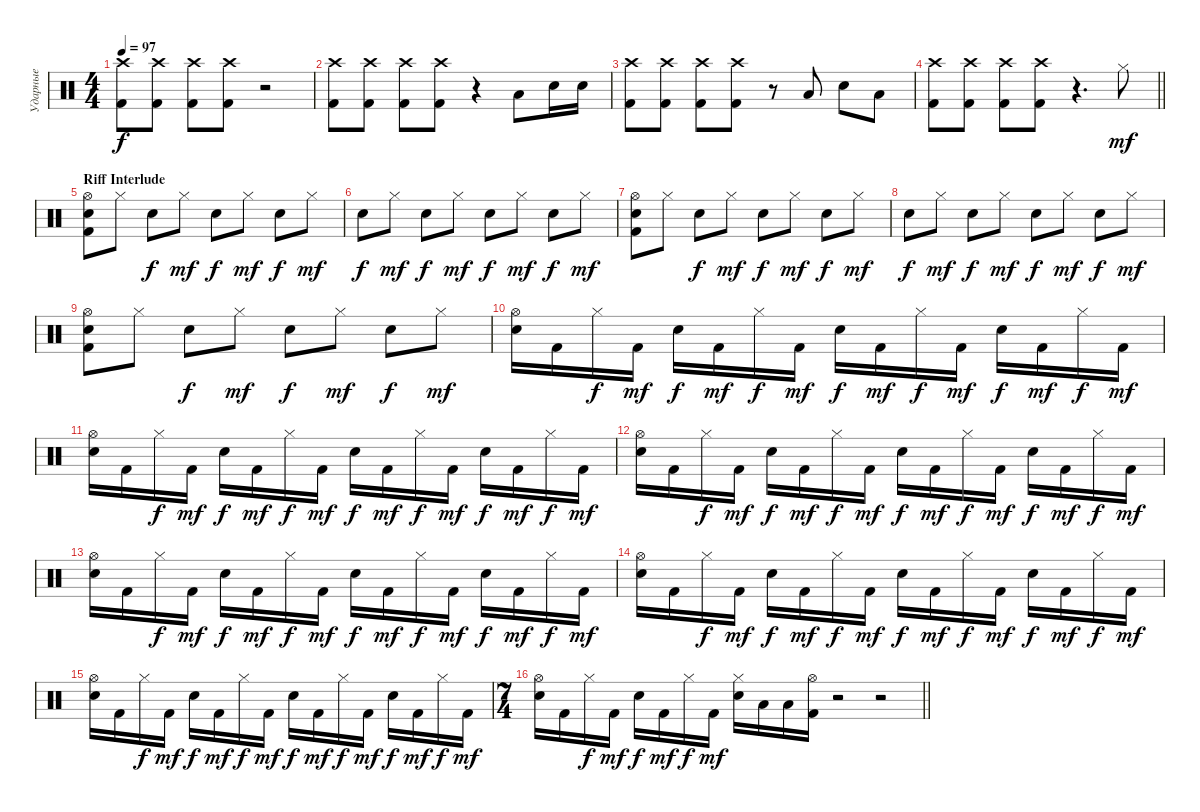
\track ("Ударные" "Ударные") {instrument percussion}
\staff {score}
\articulation defaults
\ts (4 4)
\tempo 97
\clef neutral
\ks c
("Crash high (hit)" "Kick (hit) 2").8{dy f} ("Crash high (hit)" "Kick (hit) 2").8 ("Crash high (hit)" "Kick (hit) 2").8 ("Crash high (hit)" "Kick (hit) 2").8 r.2 |
("Crash high (hit)" "Kick (hit) 2").8 ("Crash high (hit)" "Kick (hit) 2").8 ("Crash high (hit)" "Kick (hit) 2").8 ("Crash high (hit)" "Kick (hit) 2").8 r.4 "Low Tom (hit)".8 "Snare (hit) 2".16 "Snare (hit) 2".16 |
("Crash high (hit)" "Kick (hit) 2").8 ("Crash high (hit)" "Kick (hit) 2").8 ("Crash high (hit)" "Kick (hit) 2").8 ("Crash high (hit)" "Kick (hit) 2").8 r.8 "Low Tom (hit)".8 "Snare (hit) 2".8 "Low Tom (hit)".8 |
\barLineRight lightlight
("Crash high (hit)" "Kick (hit) 2").8 ("Crash high (hit)" "Kick (hit) 2").8 ("Crash high (hit)" "Kick (hit) 2").8 ("Crash high (hit)" "Kick (hit) 2").8 r.4{d} "Hi-Hat (closed)".8{dy mf} |
\section ("" "Riff Interlude")
("Hi-Hat (open)" "Snare (hit) 2" "Kick (hit) 2").8 "Hi-Hat (closed)".8 "Snare (hit) 2".8{dy f} "Hi-Hat (closed)".8{dy mf} "Snare (hit) 2".8{dy f} "Hi-Hat (closed)".8{dy mf} "Snare (hit) 2".8{dy f} "Hi-Hat (closed)".8{dy mf} |
"Snare (hit) 2".8{dy f} "Hi-Hat (closed)".8{dy mf} "Snare (hit) 2".8{dy f} "Hi-Hat (closed)".8{dy mf} "Snare (hit) 2".8{dy f} "Hi-Hat (closed)".8{dy mf} "Snare (hit) 2".8{dy f} "Hi-Hat (closed)".8{dy mf} |
("Hi-Hat (open)" "Snare (hit) 2" "Kick (hit) 2").8 "Hi-Hat (closed)".8 "Snare (hit) 2".8{dy f} "Hi-Hat (closed)".8{dy mf} "Snare (hit) 2".8{dy f} "Hi-Hat (closed)".8{dy mf} "Snare (hit) 2".8{dy f} "Hi-Hat (closed)".8{dy mf} |
"Snare (hit) 2".8{dy f} "Hi-Hat (closed)".8{dy mf} "Snare (hit) 2".8{dy f} "Hi-Hat (closed)".8{dy mf} "Snare (hit) 2".8{dy f} "Hi-Hat (closed)".8{dy mf} "Snare (hit) 2".8{dy f} "Hi-Hat (closed)".8{dy mf} |
("Hi-Hat (open)" "Snare (hit) 2" "Kick (hit) 2").8 "Hi-Hat (closed)".8 "Snare (hit) 2".8{dy f} "Hi-Hat (closed)".8{dy mf} "Snare (hit) 2".8{dy f} "Hi-Hat (closed)".8{dy mf} "Snare (hit) 2".8{dy f} "Hi-Hat (closed)".8{dy mf} |
("Hi-Hat (open)" "Snare (hit) 2").16 "Kick (hit) 2".16 "Hi-Hat (closed)".16{dy f} "Kick (hit) 2".16{dy mf} "Snare (hit) 2".16{dy f} "Kick (hit) 2".16{dy mf} "Hi-Hat (closed)".16{dy f} "Kick (hit) 2".16{dy mf} "Snare (hit) 2".16{dy f} "Kick (hit) 2".16{dy mf} "Hi-Hat (closed)".16{dy f} "Kick (hit) 2".16{dy mf} "Snare (hit) 2".16{dy f} "Kick (hit) 2".16{dy mf} "Hi-Hat (closed)".16{dy f} "Kick (hit) 2".16{dy mf} |
("Hi-Hat (open)" "Snare (hit) 2").16 "Kick (hit) 2".16 "Hi-Hat (closed)".16{dy f} "Kick (hit) 2".16{dy mf} "Snare (hit) 2".16{dy f} "Kick (hit) 2".16{dy mf} "Hi-Hat (closed)".16{dy f} "Kick (hit) 2".16{dy mf} "Snare (hit) 2".16{dy f} "Kick (hit) 2".16{dy mf} "Hi-Hat (closed)".16{dy f} "Kick (hit) 2".16{dy mf} "Snare (hit) 2".16{dy f} "Kick (hit) 2".16{dy mf} "Hi-Hat (closed)".16{dy f} "Kick (hit) 2".16{dy mf} |
("Hi-Hat (open)" "Snare (hit) 2").16 "Kick (hit) 2".16 "Hi-Hat (closed)".16{dy f} "Kick (hit) 2".16{dy mf} "Snare (hit) 2".16{dy f} "Kick (hit) 2".16{dy mf} "Hi-Hat (closed)".16{dy f} "Kick (hit) 2".16{dy mf} "Snare (hit) 2".16{dy f} "Kick (hit) 2".16{dy mf} "Hi-Hat (closed)".16{dy f} "Kick (hit) 2".16{dy mf} "Snare (hit) 2".16{dy f} "Kick (hit) 2".16{dy mf} "Hi-Hat (closed)".16{dy f} "Kick (hit) 2".16{dy mf} |
("Hi-Hat (open)" "Snare (hit) 2").16 "Kick (hit) 2".16 "Hi-Hat (closed)".16{dy f} "Kick (hit) 2".16{dy mf} "Snare (hit) 2".16{dy f} "Kick (hit) 2".16{dy mf} "Hi-Hat (closed)".16{dy f} "Kick (hit) 2".16{dy mf} "Snare (hit) 2".16{dy f} "Kick (hit) 2".16{dy mf} "Hi-Hat (closed)".16{dy f} "Kick (hit) 2".16{dy mf} "Snare (hit) 2".16{dy f} "Kick (hit) 2".16{dy mf} "Hi-Hat (closed)".16{dy f} "Kick (hit) 2".16{dy mf} |
("Hi-Hat (open)" "Snare (hit) 2").16 "Kick (hit) 2".16 "Hi-Hat (closed)".16{dy f} "Kick (hit) 2".16{dy mf} "Snare (hit) 2".16{dy f} "Kick (hit) 2".16{dy mf} "Hi-Hat (closed)".16{dy f} "Kick (hit) 2".16{dy mf} "Snare (hit) 2".16{dy f} "Kick (hit) 2".16{dy mf} "Hi-Hat (closed)".16{dy f} "Kick (hit) 2".16{dy mf} "Snare (hit) 2".16{dy f} "Kick (hit) 2".16{dy mf} "Hi-Hat (closed)".16{dy f} "Kick (hit) 2".16{dy mf} |
("Hi-Hat (open)" "Snare (hit) 2").16 "Kick (hit) 2".16 "Hi-Hat (closed)".16{dy f} "Kick (hit) 2".16{dy mf} "Snare (hit) 2".16{dy f} "Kick (hit) 2".16{dy mf} "Hi-Hat (closed)".16{dy f} "Kick (hit) 2".16{dy mf} "Snare (hit) 2".16{dy f} "Kick (hit) 2".16{dy mf} "Hi-Hat (closed)".16{dy f} "Kick (hit) 2".16{dy mf} "Snare (hit) 2".16{dy f} "Kick (hit) 2".16{dy mf} "Hi-Hat (closed)".16{dy f} "Kick (hit) 2".16{dy mf} |
\ts (7 4)
\barLineRight lightlight
("Hi-Hat (open)" "Snare (hit) 2").16 "Kick (hit) 2".16 "Hi-Hat (closed)".16{dy f} "Kick (hit) 2".16{dy mf} "Snare (hit) 2".16{dy f} "Kick (hit) 2".16{dy mf} "Hi-Hat (closed)".16{dy f} "Kick (hit) 2".16{dy mf} ("Hi-Hat (closed)" "Snare (hit) 2").16 "Low Tom (hit)".16 "Low Tom (hit)".16 ("Hi-Hat (open)" "Kick (hit) 2").16 r.2 r.2
